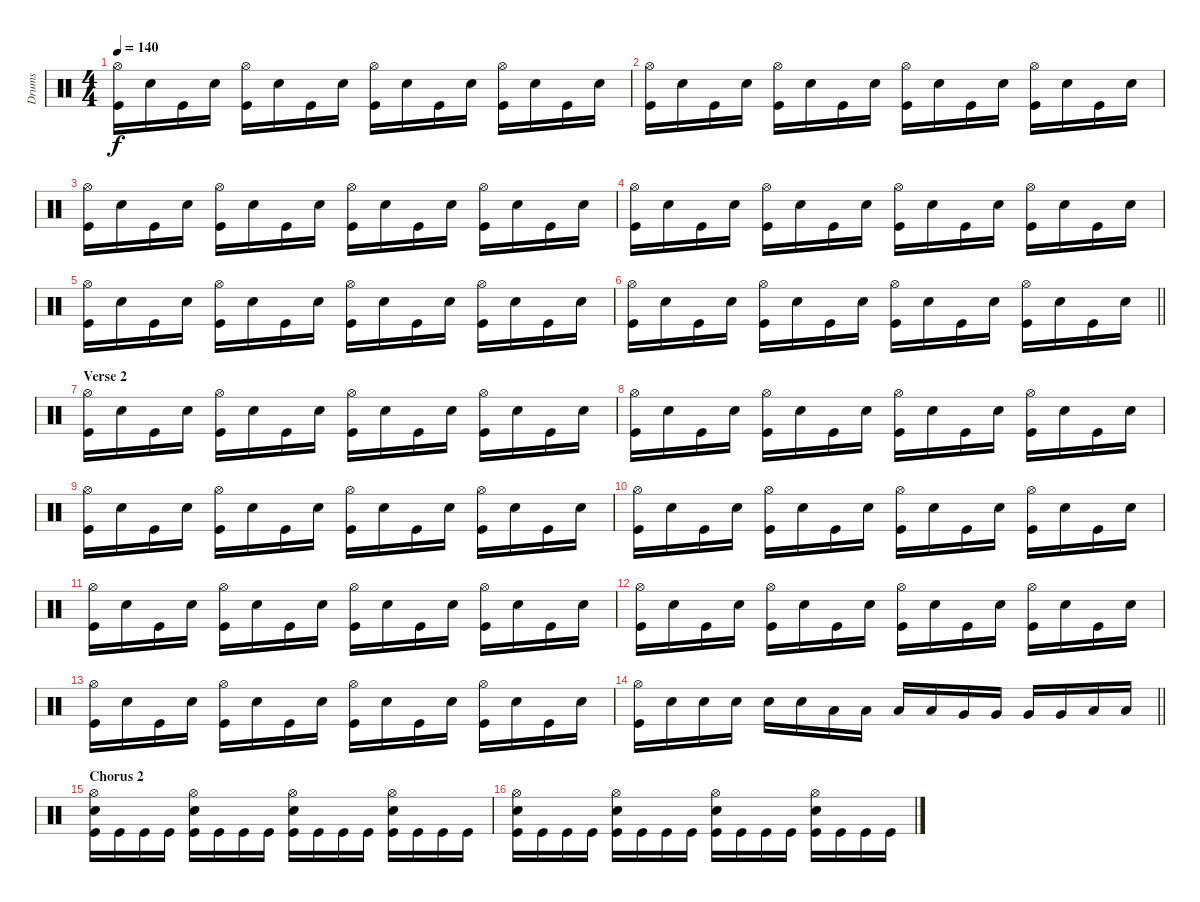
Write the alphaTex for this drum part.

\track ("Drums" "Drums") {instrument percussion}
\staff {score}
\articulation defaults
\ts (4 4)
\tempo 140
\clef neutral
\ks c
("Hi-Hat (open)" "Kick (hit)").16{dy f} "Snare (hit) 2".16 "Kick (hit)".16 "Snare (hit) 2".16 ("Hi-Hat (open)" "Kick (hit)").16 "Snare (hit) 2".16 "Kick (hit)".16 "Snare (hit) 2".16 ("Hi-Hat (open)" "Kick (hit)").16 "Snare (hit) 2".16 "Kick (hit)".16 "Snare (hit) 2".16 ("Hi-Hat (open)" "Kick (hit)").16 "Snare (hit) 2".16 "Kick (hit)".16 "Snare (hit) 2".16 |
("Hi-Hat (open)" "Kick (hit)").16 "Snare (hit) 2".16 "Kick (hit)".16 "Snare (hit) 2".16 ("Hi-Hat (open)" "Kick (hit)").16 "Snare (hit) 2".16 "Kick (hit)".16 "Snare (hit) 2".16 ("Hi-Hat (open)" "Kick (hit)").16 "Snare (hit) 2".16 "Kick (hit)".16 "Snare (hit) 2".16 ("Hi-Hat (open)" "Kick (hit)").16 "Snare (hit) 2".16 "Kick (hit)".16 "Snare (hit) 2".16 |
("Hi-Hat (open)" "Kick (hit)").16 "Snare (hit) 2".16 "Kick (hit)".16 "Snare (hit) 2".16 ("Hi-Hat (open)" "Kick (hit)").16 "Snare (hit) 2".16 "Kick (hit)".16 "Snare (hit) 2".16 ("Hi-Hat (open)" "Kick (hit)").16 "Snare (hit) 2".16 "Kick (hit)".16 "Snare (hit) 2".16 ("Hi-Hat (open)" "Kick (hit)").16 "Snare (hit) 2".16 "Kick (hit)".16 "Snare (hit) 2".16 |
("Hi-Hat (open)" "Kick (hit)").16 "Snare (hit) 2".16 "Kick (hit)".16 "Snare (hit) 2".16 ("Hi-Hat (open)" "Kick (hit)").16 "Snare (hit) 2".16 "Kick (hit)".16 "Snare (hit) 2".16 ("Hi-Hat (open)" "Kick (hit)").16 "Snare (hit) 2".16 "Kick (hit)".16 "Snare (hit) 2".16 ("Hi-Hat (open)" "Kick (hit)").16 "Snare (hit) 2".16 "Kick (hit)".16 "Snare (hit) 2".16 |
("Hi-Hat (open)" "Kick (hit)").16 "Snare (hit) 2".16 "Kick (hit)".16 "Snare (hit) 2".16 ("Hi-Hat (open)" "Kick (hit)").16 "Snare (hit) 2".16 "Kick (hit)".16 "Snare (hit) 2".16 ("Hi-Hat (open)" "Kick (hit)").16 "Snare (hit) 2".16 "Kick (hit)".16 "Snare (hit) 2".16 ("Hi-Hat (open)" "Kick (hit)").16 "Snare (hit) 2".16 "Kick (hit)".16 "Snare (hit) 2".16 |
\barLineRight lightlight
("Hi-Hat (open)" "Kick (hit)").16 "Snare (hit) 2".16 "Kick (hit)".16 "Snare (hit) 2".16 ("Hi-Hat (open)" "Kick (hit)").16 "Snare (hit) 2".16 "Kick (hit)".16 "Snare (hit) 2".16 ("Hi-Hat (open)" "Kick (hit)").16 "Snare (hit) 2".16 "Kick (hit)".16 "Snare (hit) 2".16 ("Hi-Hat (open)" "Kick (hit)").16 "Snare (hit) 2".16 "Kick (hit)".16 "Snare (hit) 2".16 |
\section ("" "Verse 2")
("Hi-Hat (open)" "Kick (hit)").16 "Snare (hit) 2".16 "Kick (hit)".16 "Snare (hit) 2".16 ("Hi-Hat (open)" "Kick (hit)").16 "Snare (hit) 2".16 "Kick (hit)".16 "Snare (hit) 2".16 ("Hi-Hat (open)" "Kick (hit)").16 "Snare (hit) 2".16 "Kick (hit)".16 "Snare (hit) 2".16 ("Hi-Hat (open)" "Kick (hit)").16 "Snare (hit) 2".16 "Kick (hit)".16 "Snare (hit) 2".16 |
("Hi-Hat (open)" "Kick (hit)").16 "Snare (hit) 2".16 "Kick (hit)".16 "Snare (hit) 2".16 ("Hi-Hat (open)" "Kick (hit)").16 "Snare (hit) 2".16 "Kick (hit)".16 "Snare (hit) 2".16 ("Hi-Hat (open)" "Kick (hit)").16 "Snare (hit) 2".16 "Kick (hit)".16 "Snare (hit) 2".16 ("Hi-Hat (open)" "Kick (hit)").16 "Snare (hit) 2".16 "Kick (hit)".16 "Snare (hit) 2".16 |
("Hi-Hat (open)" "Kick (hit)").16 "Snare (hit) 2".16 "Kick (hit)".16 "Snare (hit) 2".16 ("Hi-Hat (open)" "Kick (hit)").16 "Snare (hit) 2".16 "Kick (hit)".16 "Snare (hit) 2".16 ("Hi-Hat (open)" "Kick (hit)").16 "Snare (hit) 2".16 "Kick (hit)".16 "Snare (hit) 2".16 ("Hi-Hat (open)" "Kick (hit)").16 "Snare (hit) 2".16 "Kick (hit)".16 "Snare (hit) 2".16 |
("Hi-Hat (open)" "Kick (hit)").16 "Snare (hit) 2".16 "Kick (hit)".16 "Snare (hit) 2".16 ("Hi-Hat (open)" "Kick (hit)").16 "Snare (hit) 2".16 "Kick (hit)".16 "Snare (hit) 2".16 ("Hi-Hat (open)" "Kick (hit)").16 "Snare (hit) 2".16 "Kick (hit)".16 "Snare (hit) 2".16 ("Hi-Hat (open)" "Kick (hit)").16 "Snare (hit) 2".16 "Kick (hit)".16 "Snare (hit) 2".16 |
("Hi-Hat (open)" "Kick (hit)").16 "Snare (hit) 2".16 "Kick (hit)".16 "Snare (hit) 2".16 ("Hi-Hat (open)" "Kick (hit)").16 "Snare (hit) 2".16 "Kick (hit)".16 "Snare (hit) 2".16 ("Hi-Hat (open)" "Kick (hit)").16 "Snare (hit) 2".16 "Kick (hit)".16 "Snare (hit) 2".16 ("Hi-Hat (open)" "Kick (hit)").16 "Snare (hit) 2".16 "Kick (hit)".16 "Snare (hit) 2".16 |
("Hi-Hat (open)" "Kick (hit)").16 "Snare (hit) 2".16 "Kick (hit)".16 "Snare (hit) 2".16 ("Hi-Hat (open)" "Kick (hit)").16 "Snare (hit) 2".16 "Kick (hit)".16 "Snare (hit) 2".16 ("Hi-Hat (open)" "Kick (hit)").16 "Snare (hit) 2".16 "Kick (hit)".16 "Snare (hit) 2".16 ("Hi-Hat (open)" "Kick (hit)").16 "Snare (hit) 2".16 "Kick (hit)".16 "Snare (hit) 2".16 |
("Hi-Hat (open)" "Kick (hit)").16 "Snare (hit) 2".16 "Kick (hit)".16 "Snare (hit) 2".16 ("Hi-Hat (open)" "Kick (hit)").16 "Snare (hit) 2".16 "Kick (hit)".16 "Snare (hit) 2".16 ("Hi-Hat (open)" "Kick (hit)").16 "Snare (hit) 2".16 "Kick (hit)".16 "Snare (hit) 2".16 ("Hi-Hat (open)" "Kick (hit)").16 "Snare (hit) 2".16 "Kick (hit)".16 "Snare (hit) 2".16 |
\barLineRight lightlight
("Hi-Hat (open)" "Kick (hit)").16 "Snare (hit) 2".16 "Snare (hit) 2".16 "Snare (hit) 2".16 "Snare (hit) 2".16 "Snare (hit) 2".16 "Low Tom (hit)".16 "Low Tom (hit)".16 "Low Tom (hit)".16 "Low Tom (hit)".16 "Very Low Tom (hit)".16 "Very Low Tom (hit)".16 "Very Low Tom (hit)".16 "Very Low Tom (hit)".16 "Low Floor Tom (hit)".16 "Low Floor Tom (hit)".16 |
\section ("" "Chorus 2")
("Hi-Hat (open)" "Snare (hit) 2" "Kick (hit)").16 "Kick (hit)".16 "Kick (hit)".16 "Kick (hit)".16 ("Hi-Hat (open)" "Snare (hit) 2" "Kick (hit)").16 "Kick (hit)".16 "Kick (hit)".16 "Kick (hit)".16 ("Hi-Hat (open)" "Snare (hit) 2" "Kick (hit)").16 "Kick (hit)".16 "Kick (hit)".16 "Kick (hit)".16 ("Hi-Hat (open)" "Snare (hit) 2" "Kick (hit)").16 "Kick (hit)".16 "Kick (hit)".16 "Kick (hit)".16 |
("Hi-Hat (open)" "Snare (hit) 2" "Kick (hit)").16 "Kick (hit)".16 "Kick (hit)".16 "Kick (hit)".16 ("Hi-Hat (open)" "Snare (hit) 2" "Kick (hit)").16 "Kick (hit)".16 "Kick (hit)".16 "Kick (hit)".16 ("Hi-Hat (open)" "Snare (hit) 2" "Kick (hit)").16 "Kick (hit)".16 "Kick (hit)".16 "Kick (hit)".16 ("Hi-Hat (open)" "Snare (hit) 2" "Kick (hit)").16 "Kick (hit)".16 "Kick (hit)".16 "Kick (hit)".16
